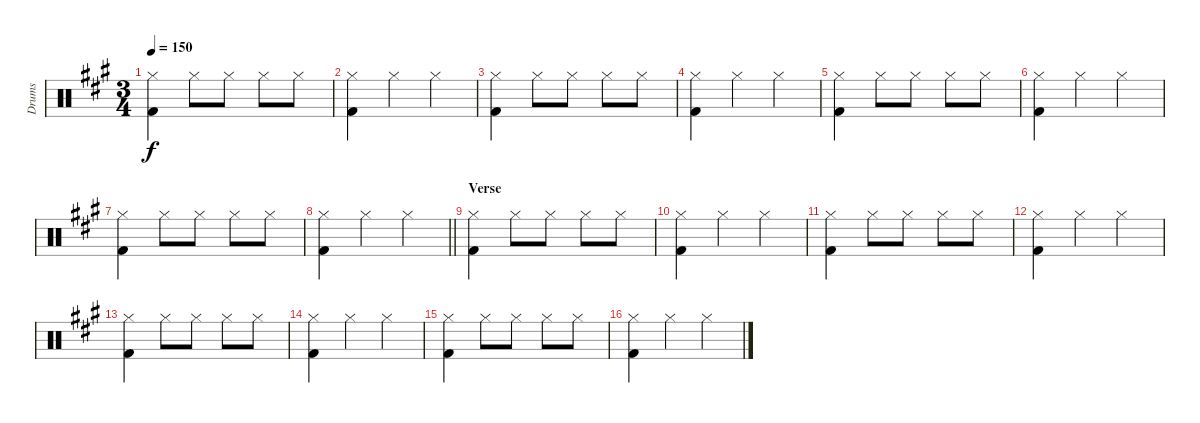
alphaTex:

\track ("Drums" "Drums") {instrument percussion}
\staff {score}
\articulation defaults
\ts (3 4)
\tempo 150
\clef neutral
\ks f#minor
("Kick (hit) 2" "Hi-Hat (closed)").4{dy f} "Hi-Hat (closed)".8 "Hi-Hat (closed)".8 "Hi-Hat (closed)".8 "Hi-Hat (closed)".8 |
("Kick (hit) 2" "Hi-Hat (closed)").4 "Hi-Hat (closed)".4 "Hi-Hat (closed)".4 |
("Kick (hit) 2" "Hi-Hat (closed)").4 "Hi-Hat (closed)".8 "Hi-Hat (closed)".8 "Hi-Hat (closed)".8 "Hi-Hat (closed)".8 |
("Kick (hit) 2" "Hi-Hat (closed)").4 "Hi-Hat (closed)".4 "Hi-Hat (closed)".4 |
("Kick (hit) 2" "Hi-Hat (closed)").4 "Hi-Hat (closed)".8 "Hi-Hat (closed)".8 "Hi-Hat (closed)".8 "Hi-Hat (closed)".8 |
("Kick (hit) 2" "Hi-Hat (closed)").4 "Hi-Hat (closed)".4 "Hi-Hat (closed)".4 |
("Kick (hit) 2" "Hi-Hat (closed)").4 "Hi-Hat (closed)".8 "Hi-Hat (closed)".8 "Hi-Hat (closed)".8 "Hi-Hat (closed)".8 |
\barLineRight lightlight
("Kick (hit) 2" "Hi-Hat (closed)").4 "Hi-Hat (closed)".4 "Hi-Hat (closed)".4 |
\section ("" "Verse")
("Kick (hit) 2" "Hi-Hat (closed)").4 "Hi-Hat (closed)".8 "Hi-Hat (closed)".8 "Hi-Hat (closed)".8 "Hi-Hat (closed)".8 |
("Kick (hit) 2" "Hi-Hat (closed)").4 "Hi-Hat (closed)".4 "Hi-Hat (closed)".4 |
("Kick (hit) 2" "Hi-Hat (closed)").4 "Hi-Hat (closed)".8 "Hi-Hat (closed)".8 "Hi-Hat (closed)".8 "Hi-Hat (closed)".8 |
("Kick (hit) 2" "Hi-Hat (closed)").4 "Hi-Hat (closed)".4 "Hi-Hat (closed)".4 |
("Kick (hit) 2" "Hi-Hat (closed)").4 "Hi-Hat (closed)".8 "Hi-Hat (closed)".8 "Hi-Hat (closed)".8 "Hi-Hat (closed)".8 |
("Kick (hit) 2" "Hi-Hat (closed)").4 "Hi-Hat (closed)".4 "Hi-Hat (closed)".4 |
("Kick (hit) 2" "Hi-Hat (closed)").4 "Hi-Hat (closed)".8 "Hi-Hat (closed)".8 "Hi-Hat (closed)".8 "Hi-Hat (closed)".8 |
("Kick (hit) 2" "Hi-Hat (closed)").4 "Hi-Hat (closed)".4 "Hi-Hat (closed)".4
